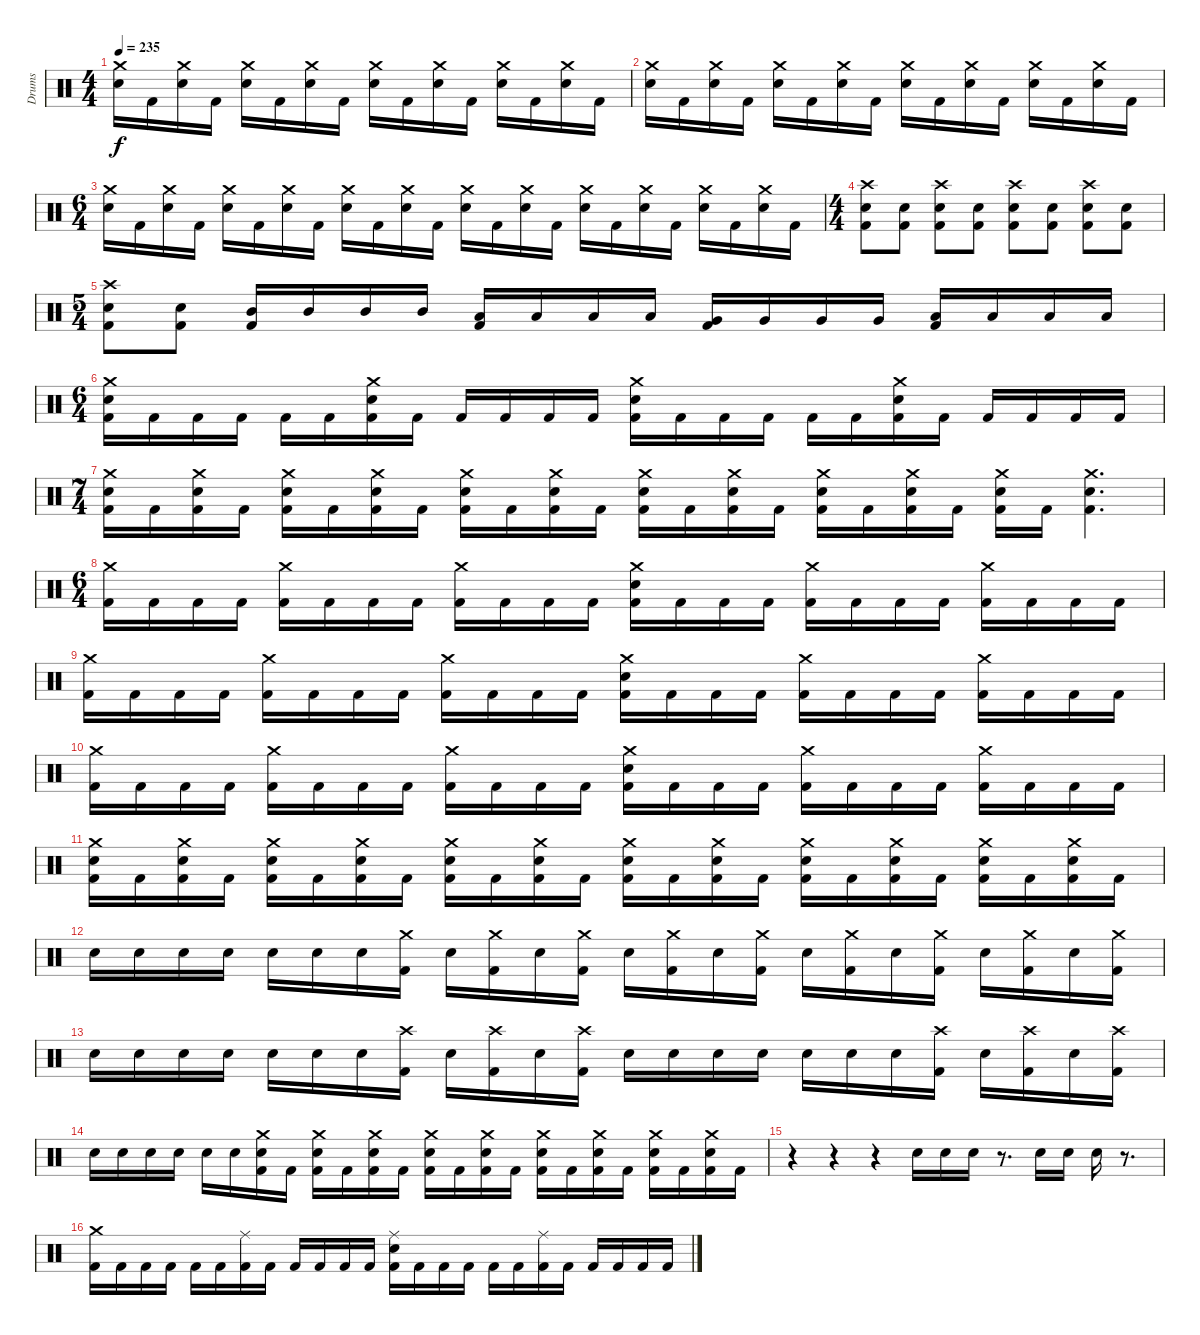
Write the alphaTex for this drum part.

\track ("Drums" "Drums") {instrument percussion}
\staff {score}
\articulation defaults
\ts (4 4)
\tempo 235
\clef neutral
\ks c
("Crash medium (hit)" "Electric Snare (hit)").16{dy f} "Kick (hit) 2".16 ("Crash medium (hit)" "Electric Snare (hit)").16 "Kick (hit) 2".16 ("Crash medium (hit)" "Electric Snare (hit)").16 "Kick (hit) 2".16 ("Crash medium (hit)" "Electric Snare (hit)").16 "Kick (hit) 2".16 ("Crash medium (hit)" "Electric Snare (hit)").16 "Kick (hit) 2".16 ("Crash medium (hit)" "Electric Snare (hit)").16 "Kick (hit) 2".16 ("Crash medium (hit)" "Electric Snare (hit)").16 "Kick (hit) 2".16 ("Crash medium (hit)" "Electric Snare (hit)").16 "Kick (hit) 2".16 |
("Crash medium (hit)" "Electric Snare (hit)").16 "Kick (hit) 2".16 ("Crash medium (hit)" "Electric Snare (hit)").16 "Kick (hit) 2".16 ("Crash medium (hit)" "Electric Snare (hit)").16 "Kick (hit) 2".16 ("Crash medium (hit)" "Electric Snare (hit)").16 "Kick (hit) 2".16 ("Crash medium (hit)" "Electric Snare (hit)").16 "Kick (hit) 2".16 ("Crash medium (hit)" "Electric Snare (hit)").16 "Kick (hit) 2".16 ("Crash medium (hit)" "Electric Snare (hit)").16 "Kick (hit) 2".16 ("Crash medium (hit)" "Electric Snare (hit)").16 "Kick (hit) 2".16 |
\ts (6 4)
("Crash medium (hit)" "Electric Snare (hit)").16 "Kick (hit) 2".16 ("Crash medium (hit)" "Electric Snare (hit)").16 "Kick (hit) 2".16 ("Crash medium (hit)" "Electric Snare (hit)").16 "Kick (hit) 2".16 ("Crash medium (hit)" "Electric Snare (hit)").16 "Kick (hit) 2".16 ("Crash medium (hit)" "Electric Snare (hit)").16 "Kick (hit) 2".16 ("Crash medium (hit)" "Electric Snare (hit)").16 "Kick (hit) 2".16 ("Crash medium (hit)" "Electric Snare (hit)").16 "Kick (hit) 2".16 ("Crash medium (hit)" "Electric Snare (hit)").16 "Kick (hit) 2".16 ("Crash medium (hit)" "Electric Snare (hit)").16 "Kick (hit) 2".16 ("Crash medium (hit)" "Electric Snare (hit)").16 "Kick (hit) 2".16 ("Crash medium (hit)" "Electric Snare (hit)").16 "Kick (hit) 2".16 ("Crash medium (hit)" "Electric Snare (hit)").16 "Kick (hit) 2".16 |
\ts (4 4)
("Crash high (hit)" "Electric Snare (hit)" "Kick (hit) 2").8 ("Electric Snare (hit)" "Kick (hit) 2").8 ("Crash high (hit)" "Electric Snare (hit)" "Kick (hit) 2").8 ("Electric Snare (hit)" "Kick (hit) 2").8 ("Crash high (hit)" "Electric Snare (hit)" "Kick (hit) 2").8 ("Electric Snare (hit)" "Kick (hit) 2").8 ("Crash high (hit)" "Electric Snare (hit)" "Kick (hit) 2").8 ("Electric Snare (hit)" "Kick (hit) 2").8 |
\ts (5 4)
("Crash high (hit)" "Electric Snare (hit)" "Kick (hit) 2").8 ("Electric Snare (hit)" "Kick (hit) 2").8 ("Mid Tom (hit)" "Kick (hit) 2").16 "Mid Tom (hit)".16 "Mid Tom (hit)".16 "Mid Tom (hit)".16 ("Low Tom (hit)" "Kick (hit) 2").16 "Low Tom (hit)".16 "Low Tom (hit)".16 "Low Tom (hit)".16 ("Very Low Tom (hit)" "Kick (hit) 2").16 "Very Low Tom (hit)".16 "Very Low Tom (hit)".16 "Very Low Tom (hit)".16 ("Low Floor Tom (hit)" "Kick (hit) 2").16 "Low Floor Tom (hit)".16 "Low Floor Tom (hit)".16 "Low Floor Tom (hit)".16 |
\ts (6 4)
("Crash medium (hit)" "Electric Snare (hit)" "Kick (hit) 2").16 "Kick (hit) 2".16 "Kick (hit) 2".16 "Kick (hit) 2".16 "Kick (hit) 2".16 "Kick (hit) 2".16 ("Crash medium (hit)" "Electric Snare (hit)" "Kick (hit) 2").16 "Kick (hit) 2".16 "Kick (hit) 2".16 "Kick (hit) 2".16 "Kick (hit) 2".16 "Kick (hit) 2".16 ("Crash medium (hit)" "Electric Snare (hit)" "Kick (hit) 2").16 "Kick (hit) 2".16 "Kick (hit) 2".16 "Kick (hit) 2".16 "Kick (hit) 2".16 "Kick (hit) 2".16 ("Crash medium (hit)" "Electric Snare (hit)" "Kick (hit) 2").16 "Kick (hit) 2".16 "Kick (hit) 2".16 "Kick (hit) 2".16 "Kick (hit) 2".16 "Kick (hit) 2".16 |
\ts (7 4)
("Crash medium (hit)" "Electric Snare (hit)" "Kick (hit) 2").16 "Kick (hit) 2".16 ("Crash medium (hit)" "Electric Snare (hit)" "Kick (hit) 2").16 "Kick (hit) 2".16 ("Crash medium (hit)" "Electric Snare (hit)" "Kick (hit) 2").16 "Kick (hit) 2".16 ("Crash medium (hit)" "Electric Snare (hit)" "Kick (hit) 2").16 "Kick (hit) 2".16 ("Crash medium (hit)" "Electric Snare (hit)" "Kick (hit) 2").16 "Kick (hit) 2".16 ("Crash medium (hit)" "Electric Snare (hit)" "Kick (hit) 2").16 "Kick (hit) 2".16 ("Crash medium (hit)" "Electric Snare (hit)" "Kick (hit) 2").16 "Kick (hit) 2".16 ("Crash medium (hit)" "Electric Snare (hit)" "Kick (hit) 2").16 "Kick (hit) 2".16 ("Crash medium (hit)" "Electric Snare (hit)" "Kick (hit) 2").16 "Kick (hit) 2".16 ("Crash medium (hit)" "Electric Snare (hit)" "Kick (hit) 2").16 "Kick (hit) 2".16 ("Crash medium (hit)" "Electric Snare (hit)" "Kick (hit) 2").16 "Kick (hit) 2".16 ("Crash medium (hit)" "Electric Snare (hit)" "Kick (hit) 2").4{d} |
\ts (6 4)
("Crash medium (hit)" "Kick (hit) 2").16 "Kick (hit) 2".16 "Kick (hit) 2".16 "Kick (hit) 2".16 ("Crash medium (hit)" "Kick (hit) 2").16 "Kick (hit) 2".16 "Kick (hit) 2".16 "Kick (hit) 2".16 ("Crash medium (hit)" "Kick (hit) 2").16 "Kick (hit) 2".16 "Kick (hit) 2".16 "Kick (hit) 2".16 ("Crash medium (hit)" "Electric Snare (hit)" "Kick (hit) 2").16 "Kick (hit) 2".16 "Kick (hit) 2".16 "Kick (hit) 2".16 ("Crash medium (hit)" "Kick (hit) 2").16 "Kick (hit) 2".16 "Kick (hit) 2".16 "Kick (hit) 2".16 ("Crash medium (hit)" "Kick (hit) 2").16 "Kick (hit) 2".16 "Kick (hit) 2".16 "Kick (hit) 2".16 |
("Crash medium (hit)" "Kick (hit) 2").16 "Kick (hit) 2".16 "Kick (hit) 2".16 "Kick (hit) 2".16 ("Crash medium (hit)" "Kick (hit) 2").16 "Kick (hit) 2".16 "Kick (hit) 2".16 "Kick (hit) 2".16 ("Crash medium (hit)" "Kick (hit) 2").16 "Kick (hit) 2".16 "Kick (hit) 2".16 "Kick (hit) 2".16 ("Crash medium (hit)" "Electric Snare (hit)" "Kick (hit) 2").16 "Kick (hit) 2".16 "Kick (hit) 2".16 "Kick (hit) 2".16 ("Crash medium (hit)" "Kick (hit) 2").16 "Kick (hit) 2".16 "Kick (hit) 2".16 "Kick (hit) 2".16 ("Crash medium (hit)" "Kick (hit) 2").16 "Kick (hit) 2".16 "Kick (hit) 2".16 "Kick (hit) 2".16 |
("Crash medium (hit)" "Kick (hit) 2").16 "Kick (hit) 2".16 "Kick (hit) 2".16 "Kick (hit) 2".16 ("Crash medium (hit)" "Kick (hit) 2").16 "Kick (hit) 2".16 "Kick (hit) 2".16 "Kick (hit) 2".16 ("Crash medium (hit)" "Kick (hit) 2").16 "Kick (hit) 2".16 "Kick (hit) 2".16 "Kick (hit) 2".16 ("Crash medium (hit)" "Electric Snare (hit)" "Kick (hit) 2").16 "Kick (hit) 2".16 "Kick (hit) 2".16 "Kick (hit) 2".16 ("Crash medium (hit)" "Kick (hit) 2").16 "Kick (hit) 2".16 "Kick (hit) 2".16 "Kick (hit) 2".16 ("Crash medium (hit)" "Kick (hit) 2").16 "Kick (hit) 2".16 "Kick (hit) 2".16 "Kick (hit) 2".16 |
("Crash medium (hit)" "Electric Snare (hit)" "Kick (hit) 2").16 "Kick (hit) 2".16 ("Crash medium (hit)" "Electric Snare (hit)" "Kick (hit) 2").16 "Kick (hit) 2".16 ("Crash medium (hit)" "Electric Snare (hit)" "Kick (hit) 2").16 "Kick (hit) 2".16 ("Crash medium (hit)" "Electric Snare (hit)" "Kick (hit) 2").16 "Kick (hit) 2".16 ("Crash medium (hit)" "Electric Snare (hit)" "Kick (hit) 2").16 "Kick (hit) 2".16 ("Crash medium (hit)" "Electric Snare (hit)" "Kick (hit) 2").16 "Kick (hit) 2".16 ("Crash medium (hit)" "Electric Snare (hit)" "Kick (hit) 2").16 "Kick (hit) 2".16 ("Crash medium (hit)" "Electric Snare (hit)" "Kick (hit) 2").16 "Kick (hit) 2".16 ("Crash medium (hit)" "Electric Snare (hit)" "Kick (hit) 2").16 "Kick (hit) 2".16 ("Crash medium (hit)" "Electric Snare (hit)" "Kick (hit) 2").16 "Kick (hit) 2".16 ("Crash medium (hit)" "Electric Snare (hit)" "Kick (hit) 2").16 "Kick (hit) 2".16 ("Crash medium (hit)" "Electric Snare (hit)" "Kick (hit) 2").16 "Kick (hit) 2".16 |
"Electric Snare (hit)".16 "Electric Snare (hit)".16 "Electric Snare (hit)".16 "Electric Snare (hit)".16 "Electric Snare (hit)".16 "Electric Snare (hit)".16 "Electric Snare (hit)".16 ("Crash medium (hit)" "Kick (hit) 2").16 "Electric Snare (hit)".16 ("Crash medium (hit)" "Kick (hit) 2").16 "Electric Snare (hit)".16 ("Crash medium (hit)" "Kick (hit) 2").16 "Electric Snare (hit)".16 ("Crash medium (hit)" "Kick (hit) 2").16 "Electric Snare (hit)".16 ("Crash medium (hit)" "Kick (hit) 2").16 "Electric Snare (hit)".16 ("Crash medium (hit)" "Kick (hit) 2").16 "Electric Snare (hit)".16 ("Crash medium (hit)" "Kick (hit) 2").16 "Electric Snare (hit)".16 ("Crash medium (hit)" "Kick (hit) 2").16 "Electric Snare (hit)".16 ("Crash medium (hit)" "Kick (hit) 2").16 |
"Electric Snare (hit)".16 "Electric Snare (hit)".16 "Electric Snare (hit)".16 "Electric Snare (hit)".16 "Electric Snare (hit)".16 "Electric Snare (hit)".16 "Electric Snare (hit)".16 ("Crash high (hit)" "Kick (hit) 2").16 "Electric Snare (hit)".16 ("Crash high (hit)" "Kick (hit) 2").16 "Electric Snare (hit)".16 ("Crash high (hit)" "Kick (hit) 2").16 "Electric Snare (hit)".16 "Electric Snare (hit)".16 "Electric Snare (hit)".16 "Electric Snare (hit)".16 "Electric Snare (hit)".16 "Electric Snare (hit)".16 "Electric Snare (hit)".16 ("Crash high (hit)" "Kick (hit) 2").16 "Electric Snare (hit)".16 ("Crash high (hit)" "Kick (hit) 2").16 "Electric Snare (hit)".16 ("Crash high (hit)" "Kick (hit) 2").16 |
"Electric Snare (hit)".16 "Electric Snare (hit)".16 "Electric Snare (hit)".16 "Electric Snare (hit)".16 "Electric Snare (hit)".16 "Electric Snare (hit)".16 ("Crash medium (hit)" "Electric Snare (hit)" "Kick (hit) 2").16 "Kick (hit) 2".16 ("Crash medium (hit)" "Electric Snare (hit)" "Kick (hit) 2").16 "Kick (hit) 2".16 ("Crash medium (hit)" "Electric Snare (hit)" "Kick (hit) 2").16 "Kick (hit) 2".16 ("Crash medium (hit)" "Electric Snare (hit)" "Kick (hit) 2").16 "Kick (hit) 2".16 ("Crash medium (hit)" "Electric Snare (hit)" "Kick (hit) 2").16 "Kick (hit) 2".16 ("Crash medium (hit)" "Electric Snare (hit)" "Kick (hit) 2").16 "Kick (hit) 2".16 ("Crash medium (hit)" "Electric Snare (hit)" "Kick (hit) 2").16 "Kick (hit) 2".16 ("Crash medium (hit)" "Electric Snare (hit)" "Kick (hit) 2").16 "Kick (hit) 2".16 ("Crash medium (hit)" "Electric Snare (hit)" "Kick (hit) 2").16 "Kick (hit) 2".16 |
r.4 r.4 r.4 "Electric Snare (hit)".16 "Electric Snare (hit)".16 "Electric Snare (hit)".16 r.8{d} "Electric Snare (hit)".16 "Electric Snare (hit)".16 "Electric Snare (hit)".16 r.8{d} |
("Crash medium (hit)" "Kick (hit) 2").16 "Kick (hit) 2".16 "Kick (hit) 2".16 "Kick (hit) 2".16 "Kick (hit) 2".16 "Kick (hit) 2".16 ("Ride (middle)" "Kick (hit) 2").16 "Kick (hit) 2".16 "Kick (hit) 2".16 "Kick (hit) 2".16 "Kick (hit) 2".16 "Kick (hit) 2".16 ("Ride (middle)" "Electric Snare (hit)" "Kick (hit) 2").16 "Kick (hit) 2".16 "Kick (hit) 2".16 "Kick (hit) 2".16 "Kick (hit) 2".16 "Kick (hit) 2".16 ("Ride (middle)" "Kick (hit) 2").16 "Kick (hit) 2".16 "Kick (hit) 2".16 "Kick (hit) 2".16 "Kick (hit) 2".16 "Kick (hit) 2".16
